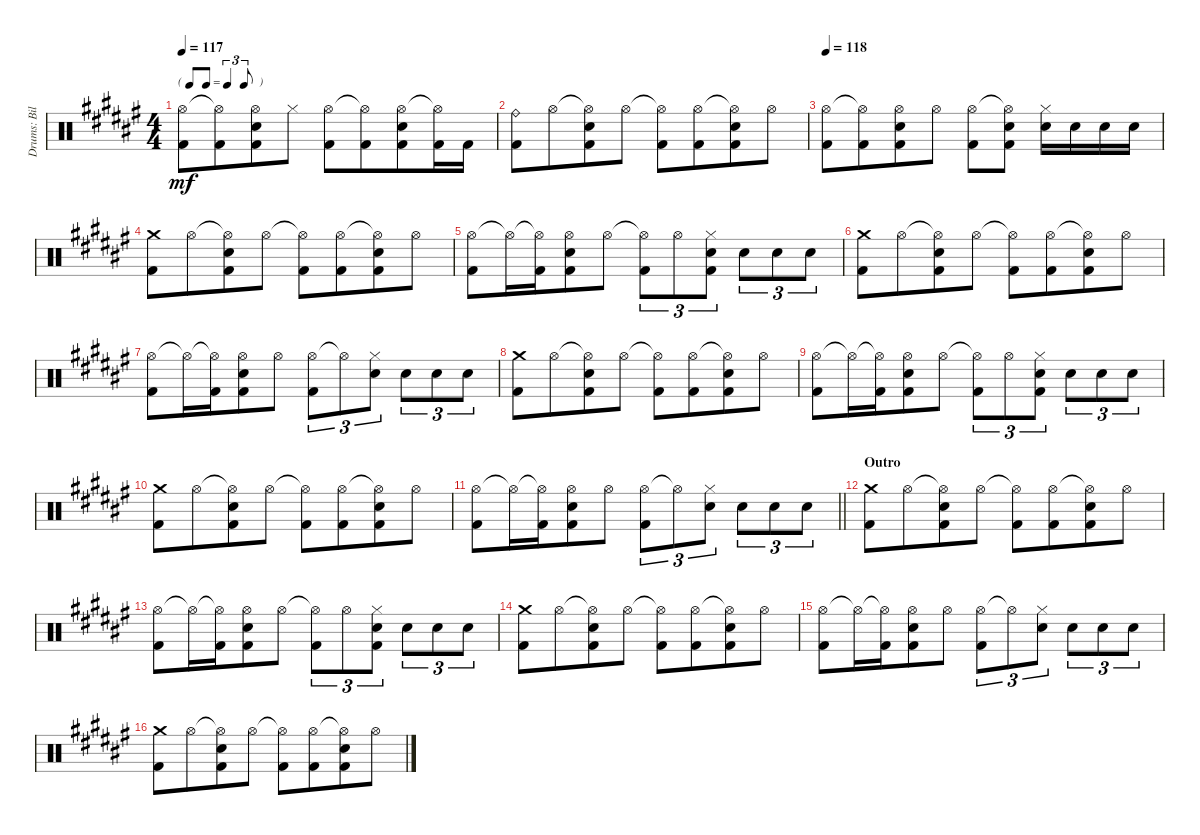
\track ("Drums: Bill" "Drums: Bil") {instrument percussion}
\staff {score}
\articulation defaults
\ts (4 4)
\tf triplet8th
\tempo 117
\clef neutral
\ks f#
("Hi-Hat (open)" "Kick (hit) 2").8{dy mf} ("Hi-Hat (open)"{t} "Kick (hit) 2").8{beam merge} ("Hi-Hat (open)" "Snare (hit) 2" "Kick (hit) 2").8 "Hi-Hat (closed)".8 ("Hi-Hat (open)" "Kick (hit) 2").8 ("Hi-Hat (open)"{t} "Kick (hit) 2").8{beam merge} ("Hi-Hat (open)" "Electric Snare (hit)" "Kick (hit) 2").8 ("Hi-Hat (open)"{t} "Kick (hit) 2").16 "Kick (hit) 2".16 |
("Ride (bell)" "Kick (hit) 2").8 "Hi-Hat (open)".8{beam merge} ("Hi-Hat (open)"{t} "Electric Snare (hit)" "Kick (hit) 2").8 "Hi-Hat (open)".8 ("Hi-Hat (open)"{t} "Kick (hit) 2").8 ("Hi-Hat (open)" "Kick (hit) 2").8{beam merge} ("Hi-Hat (open)"{t} "Electric Snare (hit)" "Kick (hit) 2").8 "Hi-Hat (open)".8 |
\tempo 118
("Hi-Hat (open)" "Kick (hit) 2").8 ("Hi-Hat (open)"{t} "Kick (hit) 2").8{beam merge} ("Hi-Hat (open)" "Electric Snare (hit)" "Kick (hit) 2").8 "Hi-Hat (open)".8 ("Hi-Hat (open)" "Kick (hit) 2").8 ("Hi-Hat (open)"{t} "Electric Snare (hit)" "Kick (hit) 2").8 ("Hi-Hat (closed)" "Electric Snare (hit)").16 "Electric Snare (hit)".16 "Electric Snare (hit)".16 "Electric Snare (hit)".16 |
("Crash medium (hit)" "Kick (hit) 2").8 "Hi-Hat (open)".8{beam merge} ("Hi-Hat (open)"{t} "Electric Snare (hit)" "Kick (hit) 2").8 "Hi-Hat (open)".8 ("Hi-Hat (open)"{t} "Kick (hit) 2").8 ("Hi-Hat (open)" "Kick (hit) 2").8{beam merge} ("Hi-Hat (open)"{t} "Electric Snare (hit)" "Kick (hit) 2").8 "Hi-Hat (open)".8 |
("Hi-Hat (open)" "Kick (hit) 2").8 "Hi-Hat (open)"{t}.16 ("Hi-Hat (open)"{t} "Kick (hit) 2").16{beam merge} ("Hi-Hat (open)" "Snare (hit) 2" "Kick (hit) 2").8 "Hi-Hat (open)".8 ("Hi-Hat (open)"{t} "Kick (hit) 2").8{tu (3 2)} "Hi-Hat (open)".8{tu (3 2)} ("Hi-Hat (closed)" "Electric Snare (hit)" "Kick (hit) 2").8{tu (3 2)} "Electric Snare (hit)".8{tu (3 2)} "Electric Snare (hit)".8{tu (3 2)} "Electric Snare (hit)".8{tu (3 2)} |
("Crash medium (hit)" "Kick (hit) 2").8 "Hi-Hat (open)".8{beam merge} ("Hi-Hat (open)"{t} "Electric Snare (hit)" "Kick (hit) 2").8 "Hi-Hat (open)".8 ("Hi-Hat (open)"{t} "Kick (hit) 2").8 ("Hi-Hat (open)" "Kick (hit) 2").8{beam merge} ("Hi-Hat (open)"{t} "Electric Snare (hit)" "Kick (hit) 2").8 "Hi-Hat (open)".8 |
("Hi-Hat (open)" "Kick (hit) 2").8 "Hi-Hat (open)"{t}.16 ("Hi-Hat (open)"{t} "Kick (hit) 2").16{beam merge} ("Hi-Hat (open)" "Snare (hit) 2" "Kick (hit) 2").8 "Hi-Hat (open)".8 ("Hi-Hat (open)" "Kick (hit) 2").8{tu (3 2)} "Hi-Hat (open)"{t}.8{tu (3 2)} ("Hi-Hat (closed)" "Electric Snare (hit)").8{tu (3 2)} "Electric Snare (hit)".8{tu (3 2)} "Electric Snare (hit)".8{tu (3 2)} "Electric Snare (hit)".8{tu (3 2)} |
("Crash medium (hit)" "Kick (hit) 2").8 "Hi-Hat (open)".8{beam merge} ("Hi-Hat (open)"{t} "Electric Snare (hit)" "Kick (hit) 2").8 "Hi-Hat (open)".8 ("Hi-Hat (open)"{t} "Kick (hit) 2").8 ("Hi-Hat (open)" "Kick (hit) 2").8{beam merge} ("Hi-Hat (open)"{t} "Electric Snare (hit)" "Kick (hit) 2").8 "Hi-Hat (open)".8 |
("Hi-Hat (open)" "Kick (hit) 2").8 "Hi-Hat (open)"{t}.16 ("Hi-Hat (open)"{t} "Kick (hit) 2").16{beam merge} ("Hi-Hat (open)" "Snare (hit) 2" "Kick (hit) 2").8 "Hi-Hat (open)".8 ("Hi-Hat (open)"{t} "Kick (hit) 2").8{tu (3 2)} "Hi-Hat (open)".8{tu (3 2)} ("Hi-Hat (closed)" "Electric Snare (hit)" "Kick (hit) 2").8{tu (3 2)} "Electric Snare (hit)".8{tu (3 2)} "Electric Snare (hit)".8{tu (3 2)} "Electric Snare (hit)".8{tu (3 2)} |
("Crash medium (hit)" "Kick (hit) 2").8 "Hi-Hat (open)".8{beam merge} ("Hi-Hat (open)"{t} "Electric Snare (hit)" "Kick (hit) 2").8 "Hi-Hat (open)".8 ("Hi-Hat (open)"{t} "Kick (hit) 2").8 ("Hi-Hat (open)" "Kick (hit) 2").8{beam merge} ("Hi-Hat (open)"{t} "Electric Snare (hit)" "Kick (hit) 2").8 "Hi-Hat (open)".8 |
\barLineRight lightlight
("Hi-Hat (open)" "Kick (hit) 2").8 "Hi-Hat (open)"{t}.16 ("Hi-Hat (open)"{t} "Kick (hit) 2").16{beam merge} ("Hi-Hat (open)" "Snare (hit) 2" "Kick (hit) 2").8 "Hi-Hat (open)".8 ("Hi-Hat (open)" "Kick (hit) 2").8{tu (3 2)} "Hi-Hat (open)"{t}.8{tu (3 2)} ("Hi-Hat (closed)" "Electric Snare (hit)").8{tu (3 2)} "Electric Snare (hit)".8{tu (3 2)} "Electric Snare (hit)".8{tu (3 2)} "Electric Snare (hit)".8{tu (3 2)} |
\section ("" "Outro")
("Crash medium (hit)" "Kick (hit) 2").8 "Hi-Hat (open)".8{beam merge} ("Hi-Hat (open)"{t} "Electric Snare (hit)" "Kick (hit) 2").8 "Hi-Hat (open)".8 ("Hi-Hat (open)"{t} "Kick (hit) 2").8 ("Hi-Hat (open)" "Kick (hit) 2").8{beam merge} ("Hi-Hat (open)"{t} "Electric Snare (hit)" "Kick (hit) 2").8 "Hi-Hat (open)".8 |
("Hi-Hat (open)" "Kick (hit) 2").8 "Hi-Hat (open)"{t}.16 ("Hi-Hat (open)"{t} "Kick (hit) 2").16{beam merge} ("Hi-Hat (open)" "Snare (hit) 2" "Kick (hit) 2").8 "Hi-Hat (open)".8 ("Hi-Hat (open)"{t} "Kick (hit) 2").8{tu (3 2)} "Hi-Hat (open)".8{tu (3 2)} ("Hi-Hat (closed)" "Electric Snare (hit)" "Kick (hit) 2").8{tu (3 2)} "Electric Snare (hit)".8{tu (3 2)} "Electric Snare (hit)".8{tu (3 2)} "Electric Snare (hit)".8{tu (3 2)} |
("Crash medium (hit)" "Kick (hit) 2").8 "Hi-Hat (open)".8{beam merge} ("Hi-Hat (open)"{t} "Electric Snare (hit)" "Kick (hit) 2").8 "Hi-Hat (open)".8 ("Hi-Hat (open)"{t} "Kick (hit) 2").8 ("Hi-Hat (open)" "Kick (hit) 2").8{beam merge} ("Hi-Hat (open)"{t} "Electric Snare (hit)" "Kick (hit) 2").8 "Hi-Hat (open)".8 |
("Hi-Hat (open)" "Kick (hit) 2").8 "Hi-Hat (open)"{t}.16 ("Hi-Hat (open)"{t} "Kick (hit) 2").16{beam merge} ("Hi-Hat (open)" "Snare (hit) 2" "Kick (hit) 2").8 "Hi-Hat (open)".8 ("Hi-Hat (open)" "Kick (hit) 2").8{tu (3 2)} "Hi-Hat (open)"{t}.8{tu (3 2)} ("Hi-Hat (closed)" "Electric Snare (hit)").8{tu (3 2)} "Electric Snare (hit)".8{tu (3 2)} "Electric Snare (hit)".8{tu (3 2)} "Electric Snare (hit)".8{tu (3 2)} |
("Crash medium (hit)" "Kick (hit) 2").8 "Hi-Hat (open)".8{beam merge} ("Hi-Hat (open)"{t} "Electric Snare (hit)" "Kick (hit) 2").8 "Hi-Hat (open)".8 ("Hi-Hat (open)"{t} "Kick (hit) 2").8 ("Hi-Hat (open)" "Kick (hit) 2").8{beam merge} ("Hi-Hat (open)"{t} "Electric Snare (hit)" "Kick (hit) 2").8 "Hi-Hat (open)".8
